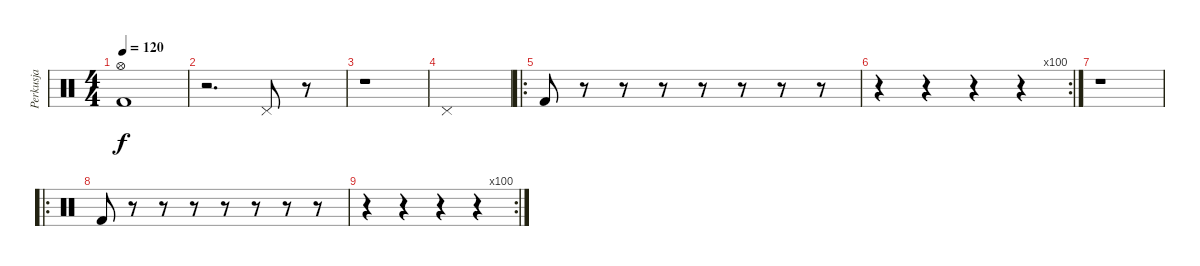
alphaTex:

\track ("Perkusja" "Perkusja") {instrument percussion}
\staff {score}
\articulation defaults
\ts (4 4)
\tempo 120
\clef neutral
\ks c
("Hi-Hat (open)" "Kick (hit) 2").1{dy f} |
r.2{d} "Pedal Hi-Hat (hit)".8 r.8 |
r.1 |
"Pedal Hi-Hat (hit)".1 |
\ro "Kick (hit) 2".8
r.8 r.8 r.8 r.8 r.8 r.8 r.8 |
\rc 100
r.4 r.4 r.4 r.4 |
r.1 |
\ro "Kick (hit) 2".8
r.8 r.8 r.8 r.8 r.8 r.8 r.8 |
\rc 100
r.4 r.4 r.4 r.4
